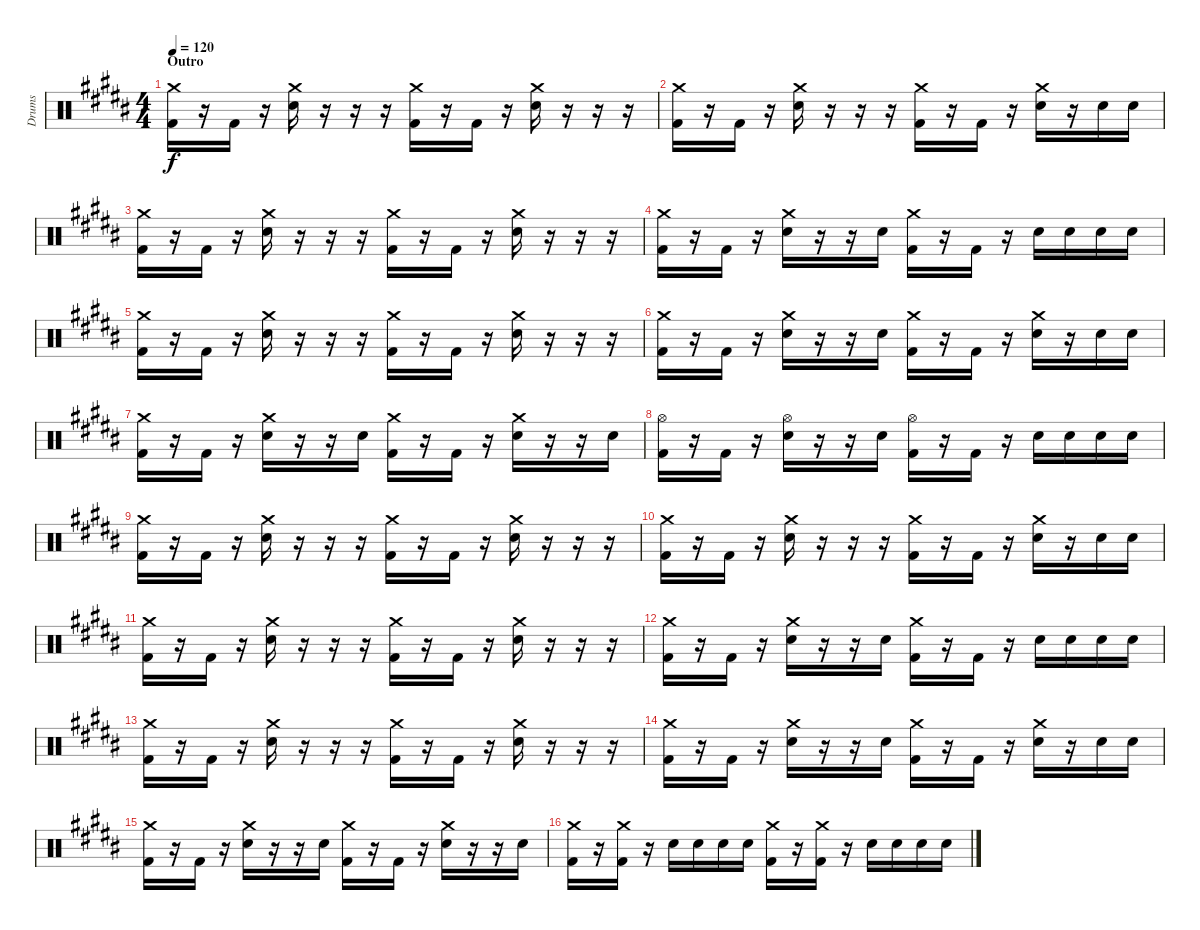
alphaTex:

\track ("Drums" "Drums") {instrument percussion}
\staff {score}
\articulation defaults
\ts (4 4)
\section ("" "Outro")
\tempo 120
\clef neutral
\ks b
("Crash medium (hit)" "Kick (hit) 2").16{dy f} r.16 "Kick (hit) 2".16 r.16 ("Crash medium (hit)" "Snare (hit) 2").16 r.16 r.16 r.16 ("Crash medium (hit)" "Kick (hit) 2").16 r.16 "Kick (hit) 2".16 r.16 ("Crash medium (hit)" "Snare (hit) 2").16 r.16 r.16 r.16 |
("Crash medium (hit)" "Kick (hit) 2").16 r.16 "Kick (hit) 2".16 r.16 ("Crash medium (hit)" "Snare (hit) 2").16 r.16 r.16 r.16 ("Crash medium (hit)" "Kick (hit) 2").16 r.16 "Kick (hit) 2".16 r.16 ("Crash medium (hit)" "Snare (hit) 2").16 r.16 "Snare (hit) 2".16 "Snare (hit) 2".16 |
("Crash medium (hit)" "Kick (hit) 2").16 r.16 "Kick (hit) 2".16 r.16 ("Crash medium (hit)" "Snare (hit) 2").16 r.16 r.16 r.16 ("Crash medium (hit)" "Kick (hit) 2").16 r.16 "Kick (hit) 2".16 r.16 ("Crash medium (hit)" "Snare (hit) 2").16 r.16 r.16 r.16 |
("Crash medium (hit)" "Kick (hit) 2").16 r.16 "Kick (hit) 2".16 r.16 ("Crash medium (hit)" "Snare (hit) 2").16 r.16 r.16 "Snare (hit) 2".16 ("Crash medium (hit)" "Kick (hit) 2").16 r.16 "Kick (hit) 2".16 r.16 "Snare (hit) 2".16 "Snare (hit) 2".16 "Snare (hit) 2".16 "Snare (hit) 2".16 |
("Crash medium (hit)" "Kick (hit) 2").16 r.16 "Kick (hit) 2".16 r.16 ("Crash medium (hit)" "Snare (hit) 2").16 r.16 r.16 r.16 ("Crash medium (hit)" "Kick (hit) 2").16 r.16 "Kick (hit) 2".16 r.16 ("Crash medium (hit)" "Snare (hit) 2").16 r.16 r.16 r.16 |
("Crash medium (hit)" "Kick (hit) 2").16 r.16 "Kick (hit) 2".16 r.16 ("Crash medium (hit)" "Snare (hit) 2").16 r.16 r.16 "Snare (hit) 2".16 ("Crash medium (hit)" "Kick (hit) 2").16 r.16 "Kick (hit) 2".16 r.16 ("Crash medium (hit)" "Snare (hit) 2").16 r.16 "Snare (hit) 2".16 "Snare (hit) 2".16 |
("Crash medium (hit)" "Kick (hit) 2").16 r.16 "Kick (hit) 2".16 r.16 ("Crash medium (hit)" "Snare (hit) 2").16 r.16 r.16 "Snare (hit) 2".16 ("Crash medium (hit)" "Kick (hit) 2").16 r.16 "Kick (hit) 2".16 r.16 ("Crash medium (hit)" "Snare (hit) 2").16 r.16 r.16 "Snare (hit) 2".16 |
("Hi-Hat (open)" "Kick (hit) 2").16 r.16 "Kick (hit) 2".16 r.16 ("Hi-Hat (open)" "Snare (hit) 2").16 r.16 r.16 "Snare (hit) 2".16 ("Hi-Hat (open)" "Kick (hit) 2").16 r.16 "Kick (hit) 2".16 r.16 "Snare (hit) 2".16 "Snare (hit) 2".16 "Snare (hit) 2".16 "Snare (hit) 2".16 |
("Crash medium (hit)" "Kick (hit) 2").16 r.16 "Kick (hit) 2".16 r.16 ("Crash medium (hit)" "Snare (hit) 2").16 r.16 r.16 r.16 ("Crash medium (hit)" "Kick (hit) 2").16 r.16 "Kick (hit) 2".16 r.16 ("Crash medium (hit)" "Snare (hit) 2").16 r.16 r.16 r.16 |
("Crash medium (hit)" "Kick (hit) 2").16 r.16 "Kick (hit) 2".16 r.16 ("Crash medium (hit)" "Snare (hit) 2").16 r.16 r.16 r.16 ("Crash medium (hit)" "Kick (hit) 2").16 r.16 "Kick (hit) 2".16 r.16 ("Crash medium (hit)" "Snare (hit) 2").16 r.16 "Snare (hit) 2".16 "Snare (hit) 2".16 |
("Crash medium (hit)" "Kick (hit) 2").16 r.16 "Kick (hit) 2".16 r.16 ("Crash medium (hit)" "Snare (hit) 2").16 r.16 r.16 r.16 ("Crash medium (hit)" "Kick (hit) 2").16 r.16 "Kick (hit) 2".16 r.16 ("Crash medium (hit)" "Snare (hit) 2").16 r.16 r.16 r.16 |
("Crash medium (hit)" "Kick (hit) 2").16 r.16 "Kick (hit) 2".16 r.16 ("Crash medium (hit)" "Snare (hit) 2").16 r.16 r.16 "Snare (hit) 2".16 ("Crash medium (hit)" "Kick (hit) 2").16 r.16 "Kick (hit) 2".16 r.16 "Snare (hit) 2".16 "Snare (hit) 2".16 "Snare (hit) 2".16 "Snare (hit) 2".16 |
("Crash medium (hit)" "Kick (hit) 2").16 r.16 "Kick (hit) 2".16 r.16 ("Crash medium (hit)" "Snare (hit) 2").16 r.16 r.16 r.16 ("Crash medium (hit)" "Kick (hit) 2").16 r.16 "Kick (hit) 2".16 r.16 ("Crash medium (hit)" "Snare (hit) 2").16 r.16 r.16 r.16 |
("Crash medium (hit)" "Kick (hit) 2").16 r.16 "Kick (hit) 2".16 r.16 ("Crash medium (hit)" "Snare (hit) 2").16 r.16 r.16 "Snare (hit) 2".16 ("Crash medium (hit)" "Kick (hit) 2").16 r.16 "Kick (hit) 2".16 r.16 ("Crash medium (hit)" "Snare (hit) 2").16 r.16 "Snare (hit) 2".16 "Snare (hit) 2".16 |
("Crash medium (hit)" "Kick (hit) 2").16 r.16 "Kick (hit) 2".16 r.16 ("Crash medium (hit)" "Snare (hit) 2").16 r.16 r.16 "Snare (hit) 2".16 ("Crash medium (hit)" "Kick (hit) 2").16 r.16 "Kick (hit) 2".16 r.16 ("Crash medium (hit)" "Snare (hit) 2").16 r.16 r.16 "Snare (hit) 2".16 |
("Crash medium (hit)" "Kick (hit) 2").16 r.16 ("Crash medium (hit)" "Kick (hit) 2").16 r.16 "Snare (hit) 2".16 "Snare (hit) 2".16 "Snare (hit) 2".16 "Snare (hit) 2".16 ("Crash medium (hit)" "Kick (hit) 2").16 r.16 ("Crash medium (hit)" "Kick (hit) 2").16 r.16 "Snare (hit) 2".16 "Snare (hit) 2".16 "Snare (hit) 2".16 "Snare (hit) 2".16
